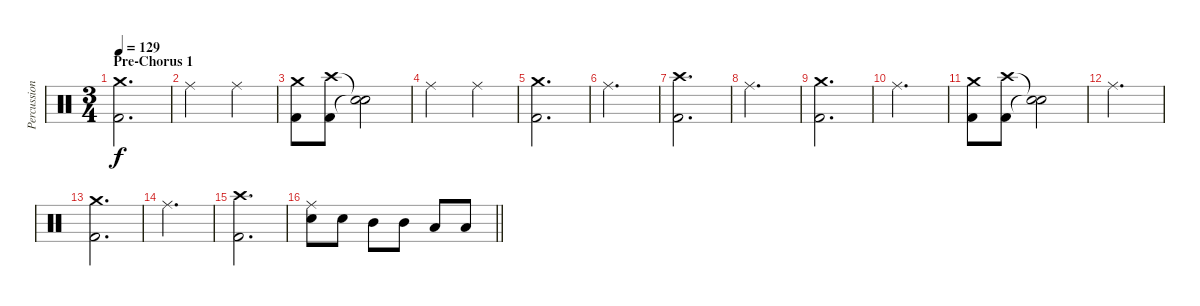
\track ("Percussion" "Percussion") {instrument percussion}
\staff {score}
\articulation defaults
\ts (3 4)
\section ("" "Pre-Chorus 1")
\tempo 129
\clef neutral
\ks c
("Crash medium (hit)" "Kick (hit) 2").2{d dy f} |
"Ride (middle)".2 "Ride (middle)".4 |
("Crash medium (hit)" "Kick (hit) 2").8 ("Crash high (hit)" "Kick (hit) 2").8 ("Snare (hit)"{t} "Snare (hit)"{t}).2 |
"Ride (middle)".2 "Ride (middle)".4 |
("Crash medium (hit)" "Kick (hit) 2").2{d} |
"Ride (middle)".2{d} |
("Crash high (hit)" "Kick (hit) 2").2{d} |
"Ride (middle)".2{d} |
("Crash medium (hit)" "Kick (hit) 2").2{d} |
"Ride (middle)".2{d} |
("Crash medium (hit)" "Kick (hit) 2").8 ("Crash high (hit)" "Kick (hit) 2").8 ("Snare (hit)"{t} "Snare (hit)"{t}).2 |
"Ride (middle)".2{d} |
("Crash medium (hit)" "Kick (hit) 2").2{d} |
"Ride (middle)".2{d} |
("Crash high (hit)" "Kick (hit) 2").2{d} |
\barLineRight lightlight
("Ride (middle)" "Electric Snare (hit)").8 "Electric Snare (hit)".8 "Mid Tom (hit)".8 "Mid Tom (hit)".8 "Low Tom (hit)".8 "Low Tom (hit)".8
